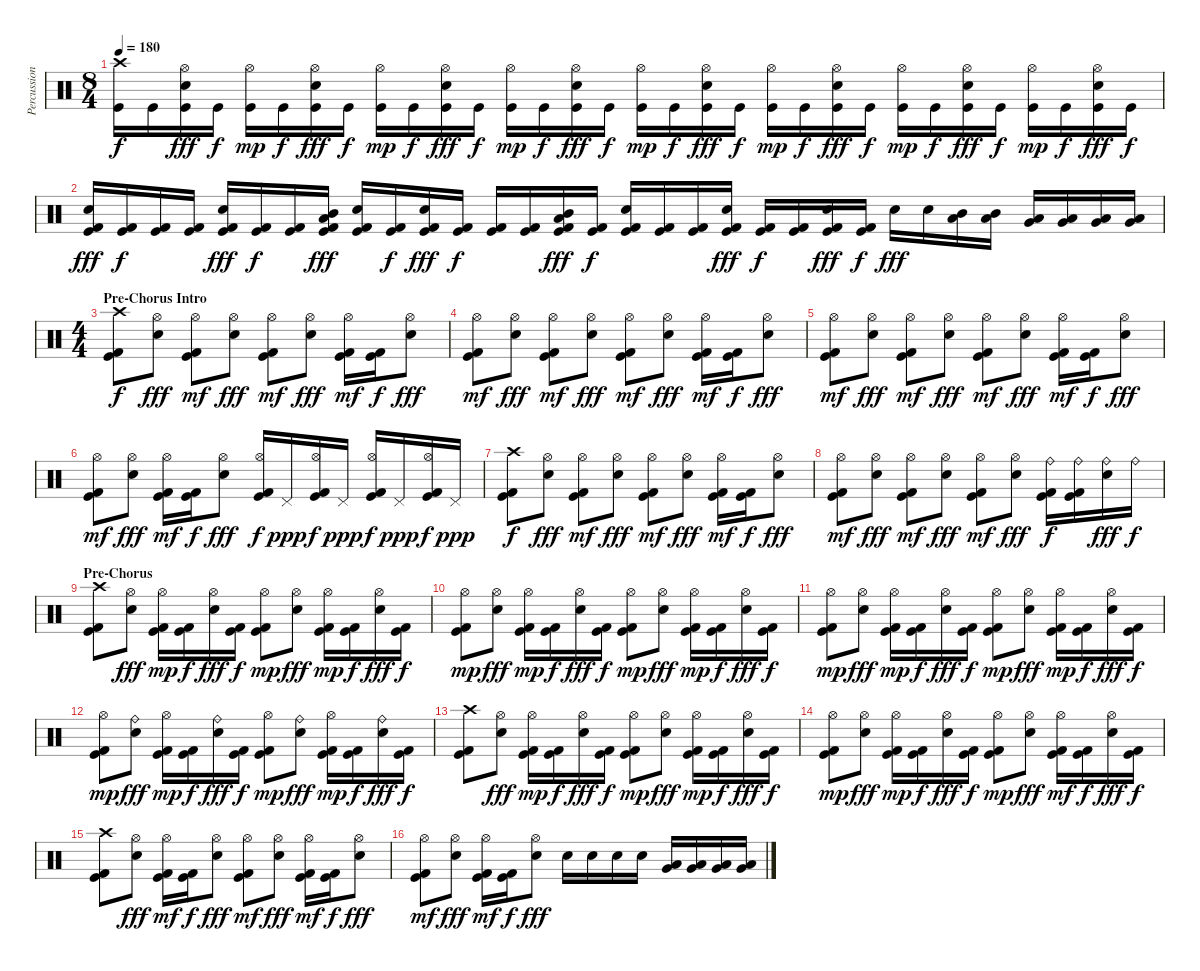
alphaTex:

\track ("Percussion" "Percussion") {instrument percussion}
\staff {score}
\articulation defaults
\ts (8 4)
\tempo 180
\clef neutral
\ks c
("Crash high (hit)" "Kick (hit)").16{dy f} "Kick (hit)".16 ("Hi-Hat (open)" "Snare (hit) 2" "Kick (hit)").16{dy fff} "Kick (hit)".16{dy f} ("Hi-Hat (open)" "Kick (hit)").16{dy mp} "Kick (hit)".16{dy f} ("Hi-Hat (open)" "Snare (hit) 2" "Kick (hit)").16{dy fff} "Kick (hit)".16{dy f} ("Hi-Hat (open)" "Kick (hit)").16{dy mp} "Kick (hit)".16{dy f} ("Hi-Hat (open)" "Snare (hit) 2" "Kick (hit)").16{dy fff} "Kick (hit)".16{dy f} ("Hi-Hat (open)" "Kick (hit)").16{dy mp} "Kick (hit)".16{dy f} ("Hi-Hat (open)" "Snare (hit) 2" "Kick (hit)").16{dy fff} "Kick (hit)".16{dy f} ("Hi-Hat (open)" "Kick (hit)").16{dy mp} "Kick (hit)".16{dy f} ("Hi-Hat (open)" "Snare (hit) 2" "Kick (hit)").16{dy fff} "Kick (hit)".16{dy f} ("Hi-Hat (open)" "Kick (hit)").16{dy mp} "Kick (hit)".16{dy f} ("Hi-Hat (open)" "Snare (hit) 2" "Kick (hit)").16{dy fff} "Kick (hit)".16{dy f} ("Hi-Hat (open)" "Kick (hit)").16{dy mp} "Kick (hit)".16{dy f} ("Hi-Hat (open)" "Snare (hit) 2" "Kick (hit)").16{dy fff} "Kick (hit)".16{dy f} ("Hi-Hat (open)" "Kick (hit)").16{dy mp} "Kick (hit)".16{dy f} ("Hi-Hat (open)" "Snare (hit) 2" "Kick (hit)").16{dy fff} "Kick (hit)".16{dy f} |
("Snare (hit) 2" "Kick (hit)" "Kick (hit) 2").16{dy fff} ("Kick (hit)" "Kick (hit) 2").16{dy f} ("Kick (hit)" "Kick (hit) 2").16 ("Kick (hit)" "Kick (hit) 2").16 ("Snare (hit) 2" "Kick (hit)" "Kick (hit) 2").16{dy fff} ("Kick (hit)" "Kick (hit) 2").16{dy f} ("Kick (hit)" "Kick (hit) 2").16 ("Mid Tom (hit)" "Low Tom (hit)" "Kick (hit)" "Kick (hit) 2").16{dy fff} ("Snare (hit) 2" "Kick (hit)" "Kick (hit) 2").16 ("Kick (hit)" "Kick (hit) 2").16{dy f} ("Snare (hit) 2" "Kick (hit)" "Kick (hit) 2").16{dy fff} ("Kick (hit)" "Kick (hit) 2").16{dy f} ("Kick (hit)" "Kick (hit) 2").16 ("Kick (hit)" "Kick (hit) 2").16 ("Mid Tom (hit)" "Low Tom (hit)" "Kick (hit)" "Kick (hit) 2").16{dy fff} ("Kick (hit)" "Kick (hit) 2").16{dy f} ("Snare (hit) 2" "Kick (hit)" "Kick (hit) 2").16 ("Kick (hit)" "Kick (hit) 2").16 ("Kick (hit)" "Kick (hit) 2").16 ("Snare (hit) 2" "Kick (hit)" "Kick (hit) 2").16{dy fff} ("Kick (hit)" "Kick (hit) 2").16{dy f} ("Kick (hit)" "Kick (hit) 2").16 ("Snare (hit) 2" "Kick (hit)" "Kick (hit) 2").16{dy fff} ("Kick (hit)" "Kick (hit) 2").16{dy f} "Snare (hit) 2".16{dy fff} "Snare (hit) 2".16 ("Mid Tom (hit)" "Low Tom (hit)").16 ("Mid Tom (hit)" "Low Tom (hit)").16 ("Low Tom (hit)" "Very Low Tom (hit)").16 ("Low Tom (hit)" "Very Low Tom (hit)").16 ("Very Low Tom (hit)" "Low Floor Tom (hit)").16 ("Very Low Tom (hit)" "Low Floor Tom (hit)").16 |
\ts (4 4)
\section ("" "Pre-Chorus Intro")
("Crash high (hit)" "Kick (hit)" "Kick (hit) 2").8{dy f} ("Hi-Hat (open)" "Snare (hit) 2").8{dy fff} ("Hi-Hat (open)" "Kick (hit)" "Kick (hit) 2").8{dy mf} ("Hi-Hat (open)" "Snare (hit) 2").8{dy fff} ("Hi-Hat (open)" "Kick (hit)" "Kick (hit) 2").8{dy mf} ("Hi-Hat (open)" "Snare (hit) 2").8{dy fff} ("Hi-Hat (open)" "Kick (hit)" "Kick (hit) 2").16{dy mf} ("Kick (hit)" "Kick (hit) 2").16{dy f} ("Hi-Hat (open)" "Snare (hit) 2").8{dy fff} |
("Hi-Hat (open)" "Kick (hit)" "Kick (hit) 2").8{dy mf} ("Hi-Hat (open)" "Snare (hit) 2").8{dy fff} ("Hi-Hat (open)" "Kick (hit)" "Kick (hit) 2").8{dy mf} ("Hi-Hat (open)" "Snare (hit) 2").8{dy fff} ("Hi-Hat (open)" "Kick (hit)" "Kick (hit) 2").8{dy mf} ("Hi-Hat (open)" "Snare (hit) 2").8{dy fff} ("Hi-Hat (open)" "Kick (hit)" "Kick (hit) 2").16{dy mf} ("Kick (hit)" "Kick (hit) 2").16{dy f} ("Hi-Hat (open)" "Snare (hit) 2").8{dy fff} |
("Hi-Hat (open)" "Kick (hit)" "Kick (hit) 2").8{dy mf} ("Hi-Hat (open)" "Snare (hit) 2").8{dy fff} ("Hi-Hat (open)" "Kick (hit)" "Kick (hit) 2").8{dy mf} ("Hi-Hat (open)" "Snare (hit) 2").8{dy fff} ("Hi-Hat (open)" "Kick (hit)" "Kick (hit) 2").8{dy mf} ("Hi-Hat (open)" "Snare (hit) 2").8{dy fff} ("Hi-Hat (open)" "Kick (hit)" "Kick (hit) 2").16{dy mf} ("Kick (hit)" "Kick (hit) 2").16{dy f} ("Hi-Hat (open)" "Snare (hit) 2").8{dy fff} |
("Hi-Hat (open)" "Kick (hit)" "Kick (hit) 2").8{dy mf} ("Hi-Hat (open)" "Snare (hit) 2").8{dy fff} ("Hi-Hat (open)" "Kick (hit)" "Kick (hit) 2").16{dy mf} ("Kick (hit)" "Kick (hit) 2").16{dy f} ("Hi-Hat (open)" "Snare (hit) 2").8{dy fff} ("Hi-Hat (open)" "Kick (hit)" "Kick (hit) 2").16{dy f} "Pedal Hi-Hat (hit)".16{dy ppp} ("Hi-Hat (open)" "Kick (hit)" "Kick (hit) 2").16{dy f} "Pedal Hi-Hat (hit)".16{dy ppp} ("Hi-Hat (open)" "Kick (hit)" "Kick (hit) 2").16{dy f} "Pedal Hi-Hat (hit)".16{dy ppp} ("Hi-Hat (open)" "Kick (hit)" "Kick (hit) 2").16{dy f} "Pedal Hi-Hat (hit)".16{dy ppp} |
("Crash high (hit)" "Kick (hit)" "Kick (hit) 2").8{dy f} ("Hi-Hat (open)" "Snare (hit) 2").8{dy fff} ("Hi-Hat (open)" "Kick (hit)" "Kick (hit) 2").8{dy mf} ("Hi-Hat (open)" "Snare (hit) 2").8{dy fff} ("Hi-Hat (open)" "Kick (hit)" "Kick (hit) 2").8{dy mf} ("Hi-Hat (open)" "Snare (hit) 2").8{dy fff} ("Hi-Hat (open)" "Kick (hit)" "Kick (hit) 2").16{dy mf} ("Kick (hit)" "Kick (hit) 2").16{dy f} ("Hi-Hat (open)" "Snare (hit) 2").8{dy fff} |
("Hi-Hat (open)" "Kick (hit)" "Kick (hit) 2").8{dy mf} ("Hi-Hat (open)" "Snare (hit) 2").8{dy fff} ("Hi-Hat (open)" "Kick (hit)" "Kick (hit) 2").8{dy mf} ("Hi-Hat (open)" "Snare (hit) 2").8{dy fff} ("Hi-Hat (open)" "Kick (hit)" "Kick (hit) 2").8{dy mf} ("Hi-Hat (open)" "Snare (hit) 2").8{dy fff} ("Ride (bell)" "Kick (hit)" "Kick (hit) 2").16{dy f} ("Ride (bell)" "Kick (hit)" "Kick (hit) 2").16 ("Ride (bell)" "Snare (hit) 2").16{dy fff} "Ride (bell)".16{dy f} |
\section ("" "Pre-Chorus")
("Crash high (hit)" "Kick (hit)" "Kick (hit) 2").8 ("Hi-Hat (open)" "Snare (hit) 2").8{dy fff} ("Hi-Hat (open)" "Kick (hit)" "Kick (hit) 2").16{dy mp} ("Kick (hit)" "Kick (hit) 2").16{dy f} ("Hi-Hat (open)" "Snare (hit) 2").16{dy fff} ("Kick (hit)" "Kick (hit) 2").16{dy f} ("Hi-Hat (open)" "Kick (hit)" "Kick (hit) 2").8{dy mp} ("Hi-Hat (open)" "Snare (hit) 2").8{dy fff} ("Hi-Hat (open)" "Kick (hit)" "Kick (hit) 2").16{dy mp} ("Kick (hit)" "Kick (hit) 2").16{dy f} ("Hi-Hat (open)" "Snare (hit) 2").16{dy fff} ("Kick (hit)" "Kick (hit) 2").16{dy f} |
("Hi-Hat (open)" "Kick (hit)" "Kick (hit) 2").8{dy mp} ("Hi-Hat (open)" "Snare (hit) 2").8{dy fff} ("Hi-Hat (open)" "Kick (hit)" "Kick (hit) 2").16{dy mp} ("Kick (hit)" "Kick (hit) 2").16{dy f} ("Hi-Hat (open)" "Snare (hit) 2").16{dy fff} ("Kick (hit)" "Kick (hit) 2").16{dy f} ("Hi-Hat (open)" "Kick (hit)" "Kick (hit) 2").8{dy mp} ("Hi-Hat (open)" "Snare (hit) 2").8{dy fff} ("Hi-Hat (open)" "Kick (hit)" "Kick (hit) 2").16{dy mp} ("Kick (hit)" "Kick (hit) 2").16{dy f} ("Hi-Hat (open)" "Snare (hit) 2").16{dy fff} ("Kick (hit)" "Kick (hit) 2").16{dy f} |
("Hi-Hat (open)" "Kick (hit)" "Kick (hit) 2").8{dy mp} ("Hi-Hat (open)" "Snare (hit) 2").8{dy fff} ("Hi-Hat (open)" "Kick (hit)" "Kick (hit) 2").16{dy mp} ("Kick (hit)" "Kick (hit) 2").16{dy f} ("Hi-Hat (open)" "Snare (hit) 2").16{dy fff} ("Kick (hit)" "Kick (hit) 2").16{dy f} ("Hi-Hat (open)" "Kick (hit)" "Kick (hit) 2").8{dy mp} ("Hi-Hat (open)" "Snare (hit) 2").8{dy fff} ("Hi-Hat (open)" "Kick (hit)" "Kick (hit) 2").16{dy mp} ("Kick (hit)" "Kick (hit) 2").16{dy f} ("Hi-Hat (open)" "Snare (hit) 2").16{dy fff} ("Kick (hit)" "Kick (hit) 2").16{dy f} |
("Hi-Hat (open)" "Kick (hit)" "Kick (hit) 2").8{dy mp} ("Ride (bell)" "Snare (hit) 2").8{dy fff} ("Hi-Hat (open)" "Kick (hit)" "Kick (hit) 2").16{dy mp} ("Kick (hit)" "Kick (hit) 2").16{dy f} ("Ride (bell)" "Snare (hit) 2").16{dy fff} ("Kick (hit)" "Kick (hit) 2").16{dy f} ("Hi-Hat (open)" "Kick (hit)" "Kick (hit) 2").8{dy mp} ("Ride (bell)" "Snare (hit) 2").8{dy fff} ("Hi-Hat (open)" "Kick (hit)" "Kick (hit) 2").16{dy mp} ("Kick (hit)" "Kick (hit) 2").16{dy f} ("Ride (bell)" "Snare (hit) 2").16{dy fff} ("Kick (hit)" "Kick (hit) 2").16{dy f} |
("Crash high (hit)" "Kick (hit)" "Kick (hit) 2").8 ("Hi-Hat (open)" "Snare (hit) 2").8{dy fff} ("Hi-Hat (open)" "Kick (hit)" "Kick (hit) 2").16{dy mp} ("Kick (hit)" "Kick (hit) 2").16{dy f} ("Hi-Hat (open)" "Snare (hit) 2").16{dy fff} ("Kick (hit)" "Kick (hit) 2").16{dy f} ("Hi-Hat (open)" "Kick (hit)" "Kick (hit) 2").8{dy mp} ("Hi-Hat (open)" "Snare (hit) 2").8{dy fff} ("Hi-Hat (open)" "Kick (hit)" "Kick (hit) 2").16{dy mp} ("Kick (hit)" "Kick (hit) 2").16{dy f} ("Hi-Hat (open)" "Snare (hit) 2").16{dy fff} ("Kick (hit)" "Kick (hit) 2").16{dy f} |
("Hi-Hat (open)" "Kick (hit)" "Kick (hit) 2").8{dy mp} ("Hi-Hat (open)" "Snare (hit) 2").8{dy fff} ("Hi-Hat (open)" "Kick (hit)" "Kick (hit) 2").16{dy mp} ("Kick (hit)" "Kick (hit) 2").16{dy f} ("Hi-Hat (open)" "Snare (hit) 2").16{dy fff} ("Kick (hit)" "Kick (hit) 2").16{dy f} ("Hi-Hat (open)" "Kick (hit)" "Kick (hit) 2").8{dy mp} ("Hi-Hat (open)" "Snare (hit) 2").8{dy fff} ("Hi-Hat (open)" "Kick (hit)" "Kick (hit) 2").16{dy mf} ("Kick (hit)" "Kick (hit) 2").16{dy f} ("Hi-Hat (open)" "Snare (hit) 2").16{dy fff} ("Kick (hit)" "Kick (hit) 2").16{dy f} |
("Crash high (hit)" "Kick (hit)" "Kick (hit) 2").8 ("Hi-Hat (open)" "Snare (hit) 2").8{dy fff} ("Hi-Hat (open)" "Kick (hit)" "Kick (hit) 2").16{dy mf} ("Kick (hit)" "Kick (hit) 2").16{dy f} ("Hi-Hat (open)" "Snare (hit) 2").8{dy fff} ("Hi-Hat (open)" "Kick (hit)" "Kick (hit) 2").8{dy mf} ("Hi-Hat (open)" "Snare (hit) 2").8{dy fff} ("Hi-Hat (open)" "Kick (hit)" "Kick (hit) 2").16{dy mf} ("Kick (hit)" "Kick (hit) 2").16{dy f} ("Hi-Hat (open)" "Snare (hit) 2").8{dy fff} |
("Hi-Hat (open)" "Kick (hit)" "Kick (hit) 2").8{dy mf} ("Hi-Hat (open)" "Snare (hit) 2").8{dy fff} ("Hi-Hat (open)" "Kick (hit)" "Kick (hit) 2").16{dy mf} ("Kick (hit)" "Kick (hit) 2").16{dy f} ("Hi-Hat (open)" "Snare (hit) 2").8{dy fff} "Snare (hit) 2".16 "Snare (hit) 2".16 "Snare (hit) 2".16 "Snare (hit) 2".16 ("Very Low Tom (hit)" "Low Tom (hit)").16 ("Very Low Tom (hit)" "Low Tom (hit)").16 ("Very Low Tom (hit)" "Low Tom (hit)").16 ("Very Low Tom (hit)" "Low Tom (hit)").16
